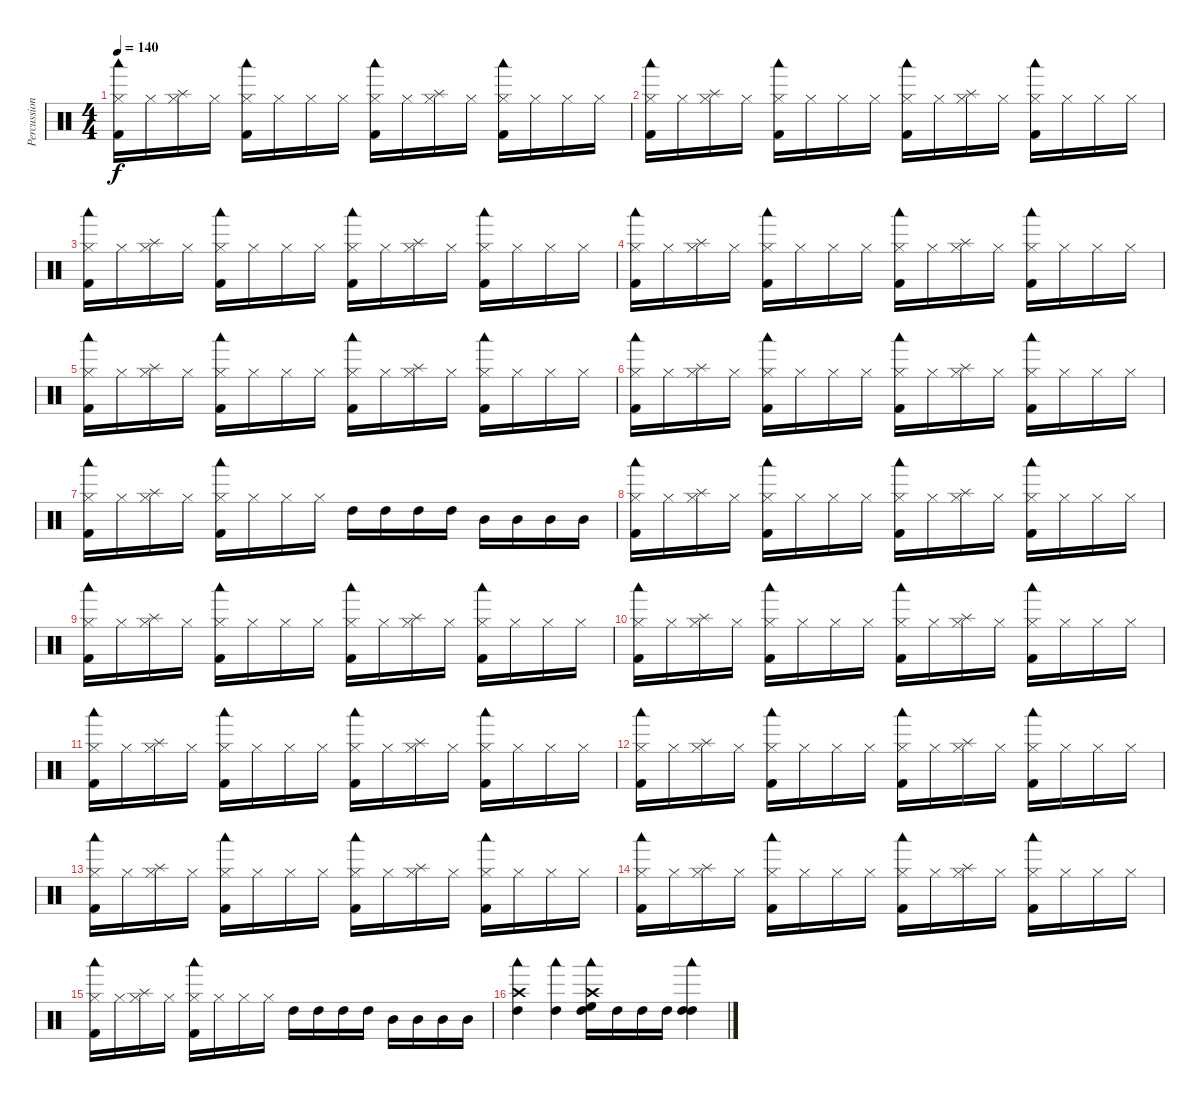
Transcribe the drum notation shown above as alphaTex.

\track ("Percussion" "Percussion") {instrument percussion}
\staff {score}
\articulation defaults
\ts (4 4)
\tempo 140
\clef neutral
\ks c
("Woodblock low (hit)" "Hi-Hat (closed)" "Kick (hit) 2").16{dy f} "Hi-Hat (closed)".16 ("Splash (hit)" "Hi-Hat (closed)").16 "Hi-Hat (closed)".16 ("Woodblock low (hit)" "Hi-Hat (closed)" "Kick (hit) 2").16 "Hi-Hat (closed)".16 "Hi-Hat (closed)".16 "Hi-Hat (closed)".16 ("Woodblock low (hit)" "Hi-Hat (closed)" "Kick (hit) 2").16 "Hi-Hat (closed)".16 ("Splash (hit)" "Hi-Hat (closed)").16 "Hi-Hat (closed)".16 ("Woodblock low (hit)" "Hi-Hat (closed)" "Kick (hit) 2").16 "Hi-Hat (closed)".16 "Hi-Hat (closed)".16 "Hi-Hat (closed)".16 |
("Woodblock low (hit)" "Hi-Hat (closed)" "Kick (hit) 2").16 "Hi-Hat (closed)".16 ("Splash (hit)" "Hi-Hat (closed)").16 "Hi-Hat (closed)".16 ("Woodblock low (hit)" "Hi-Hat (closed)" "Kick (hit) 2").16 "Hi-Hat (closed)".16 "Hi-Hat (closed)".16 "Hi-Hat (closed)".16 ("Woodblock low (hit)" "Hi-Hat (closed)" "Kick (hit) 2").16 "Hi-Hat (closed)".16 ("Splash (hit)" "Hi-Hat (closed)").16 "Hi-Hat (closed)".16 ("Woodblock low (hit)" "Hi-Hat (closed)" "Kick (hit) 2").16 "Hi-Hat (closed)".16 "Hi-Hat (closed)".16 "Hi-Hat (closed)".16 |
("Woodblock low (hit)" "Hi-Hat (closed)" "Kick (hit) 2").16 "Hi-Hat (closed)".16 ("Splash (hit)" "Hi-Hat (closed)").16 "Hi-Hat (closed)".16 ("Woodblock low (hit)" "Hi-Hat (closed)" "Kick (hit) 2").16 "Hi-Hat (closed)".16 "Hi-Hat (closed)".16 "Hi-Hat (closed)".16 ("Woodblock low (hit)" "Hi-Hat (closed)" "Kick (hit) 2").16 "Hi-Hat (closed)".16 ("Splash (hit)" "Hi-Hat (closed)").16 "Hi-Hat (closed)".16 ("Woodblock low (hit)" "Hi-Hat (closed)" "Kick (hit) 2").16 "Hi-Hat (closed)".16 "Hi-Hat (closed)".16 "Hi-Hat (closed)".16 |
("Woodblock low (hit)" "Hi-Hat (closed)" "Kick (hit) 2").16 "Hi-Hat (closed)".16 ("Splash (hit)" "Hi-Hat (closed)").16 "Hi-Hat (closed)".16 ("Woodblock low (hit)" "Hi-Hat (closed)" "Kick (hit) 2").16 "Hi-Hat (closed)".16 "Hi-Hat (closed)".16 "Hi-Hat (closed)".16 ("Woodblock low (hit)" "Hi-Hat (closed)" "Kick (hit) 2").16 "Hi-Hat (closed)".16 ("Splash (hit)" "Hi-Hat (closed)").16 "Hi-Hat (closed)".16 ("Woodblock low (hit)" "Hi-Hat (closed)" "Kick (hit) 2").16 "Hi-Hat (closed)".16 "Hi-Hat (closed)".16 "Hi-Hat (closed)".16 |
("Woodblock low (hit)" "Hi-Hat (closed)" "Kick (hit) 2").16 "Hi-Hat (closed)".16 ("Splash (hit)" "Hi-Hat (closed)").16 "Hi-Hat (closed)".16 ("Woodblock low (hit)" "Hi-Hat (closed)" "Kick (hit) 2").16 "Hi-Hat (closed)".16 "Hi-Hat (closed)".16 "Hi-Hat (closed)".16 ("Woodblock low (hit)" "Hi-Hat (closed)" "Kick (hit) 2").16 "Hi-Hat (closed)".16 ("Splash (hit)" "Hi-Hat (closed)").16 "Hi-Hat (closed)".16 ("Woodblock low (hit)" "Hi-Hat (closed)" "Kick (hit) 2").16 "Hi-Hat (closed)".16 "Hi-Hat (closed)".16 "Hi-Hat (closed)".16 |
("Woodblock low (hit)" "Hi-Hat (closed)" "Kick (hit) 2").16 "Hi-Hat (closed)".16 ("Splash (hit)" "Hi-Hat (closed)").16 "Hi-Hat (closed)".16 ("Woodblock low (hit)" "Hi-Hat (closed)" "Kick (hit) 2").16 "Hi-Hat (closed)".16 "Hi-Hat (closed)".16 "Hi-Hat (closed)".16 ("Woodblock low (hit)" "Hi-Hat (closed)" "Kick (hit) 2").16 "Hi-Hat (closed)".16 ("Splash (hit)" "Hi-Hat (closed)").16 "Hi-Hat (closed)".16 ("Woodblock low (hit)" "Hi-Hat (closed)" "Kick (hit) 2").16 "Hi-Hat (closed)".16 "Hi-Hat (closed)".16 "Hi-Hat (closed)".16 |
("Woodblock low (hit)" "Hi-Hat (closed)" "Kick (hit) 2").16 "Hi-Hat (closed)".16 ("Splash (hit)" "Hi-Hat (closed)").16 "Hi-Hat (closed)".16 ("Woodblock low (hit)" "Hi-Hat (closed)" "Kick (hit) 2").16 "Hi-Hat (closed)".16 "Hi-Hat (closed)".16 "Hi-Hat (closed)".16 "High Tom (hit)".16 "High Tom (hit)".16 "High Tom (hit)".16 "High Tom (hit)".16 "Mid Tom (hit)".16 "Mid Tom (hit)".16 "Mid Tom (hit)".16 "Mid Tom (hit)".16 |
("Woodblock low (hit)" "Hi-Hat (closed)" "Kick (hit) 2").16 "Hi-Hat (closed)".16 ("Splash (hit)" "Hi-Hat (closed)").16 "Hi-Hat (closed)".16 ("Woodblock low (hit)" "Hi-Hat (closed)" "Kick (hit) 2").16 "Hi-Hat (closed)".16 "Hi-Hat (closed)".16 "Hi-Hat (closed)".16 ("Woodblock low (hit)" "Hi-Hat (closed)" "Kick (hit) 2").16 "Hi-Hat (closed)".16 ("Splash (hit)" "Hi-Hat (closed)").16 "Hi-Hat (closed)".16 ("Woodblock low (hit)" "Hi-Hat (closed)" "Kick (hit) 2").16 "Hi-Hat (closed)".16 "Hi-Hat (closed)".16 "Hi-Hat (closed)".16 |
("Woodblock low (hit)" "Hi-Hat (closed)" "Kick (hit) 2").16 "Hi-Hat (closed)".16 ("Splash (hit)" "Hi-Hat (closed)").16 "Hi-Hat (closed)".16 ("Woodblock low (hit)" "Hi-Hat (closed)" "Kick (hit) 2").16 "Hi-Hat (closed)".16 "Hi-Hat (closed)".16 "Hi-Hat (closed)".16 ("Woodblock low (hit)" "Hi-Hat (closed)" "Kick (hit) 2").16 "Hi-Hat (closed)".16 ("Splash (hit)" "Hi-Hat (closed)").16 "Hi-Hat (closed)".16 ("Woodblock low (hit)" "Hi-Hat (closed)" "Kick (hit) 2").16 "Hi-Hat (closed)".16 "Hi-Hat (closed)".16 "Hi-Hat (closed)".16 |
("Woodblock low (hit)" "Hi-Hat (closed)" "Kick (hit) 2").16 "Hi-Hat (closed)".16 ("Splash (hit)" "Hi-Hat (closed)").16 "Hi-Hat (closed)".16 ("Woodblock low (hit)" "Hi-Hat (closed)" "Kick (hit) 2").16 "Hi-Hat (closed)".16 "Hi-Hat (closed)".16 "Hi-Hat (closed)".16 ("Woodblock low (hit)" "Hi-Hat (closed)" "Kick (hit) 2").16 "Hi-Hat (closed)".16 ("Splash (hit)" "Hi-Hat (closed)").16 "Hi-Hat (closed)".16 ("Woodblock low (hit)" "Hi-Hat (closed)" "Kick (hit) 2").16 "Hi-Hat (closed)".16 "Hi-Hat (closed)".16 "Hi-Hat (closed)".16 |
("Woodblock low (hit)" "Hi-Hat (closed)" "Kick (hit) 2").16 "Hi-Hat (closed)".16 ("Splash (hit)" "Hi-Hat (closed)").16 "Hi-Hat (closed)".16 ("Woodblock low (hit)" "Hi-Hat (closed)" "Kick (hit) 2").16 "Hi-Hat (closed)".16 "Hi-Hat (closed)".16 "Hi-Hat (closed)".16 ("Woodblock low (hit)" "Hi-Hat (closed)" "Kick (hit) 2").16 "Hi-Hat (closed)".16 ("Splash (hit)" "Hi-Hat (closed)").16 "Hi-Hat (closed)".16 ("Woodblock low (hit)" "Hi-Hat (closed)" "Kick (hit) 2").16 "Hi-Hat (closed)".16 "Hi-Hat (closed)".16 "Hi-Hat (closed)".16 |
("Woodblock low (hit)" "Hi-Hat (closed)" "Kick (hit) 2").16 "Hi-Hat (closed)".16 ("Splash (hit)" "Hi-Hat (closed)").16 "Hi-Hat (closed)".16 ("Woodblock low (hit)" "Hi-Hat (closed)" "Kick (hit) 2").16 "Hi-Hat (closed)".16 "Hi-Hat (closed)".16 "Hi-Hat (closed)".16 ("Woodblock low (hit)" "Hi-Hat (closed)" "Kick (hit) 2").16 "Hi-Hat (closed)".16 ("Splash (hit)" "Hi-Hat (closed)").16 "Hi-Hat (closed)".16 ("Woodblock low (hit)" "Hi-Hat (closed)" "Kick (hit) 2").16 "Hi-Hat (closed)".16 "Hi-Hat (closed)".16 "Hi-Hat (closed)".16 |
("Woodblock low (hit)" "Hi-Hat (closed)" "Kick (hit) 2").16 "Hi-Hat (closed)".16 ("Splash (hit)" "Hi-Hat (closed)").16 "Hi-Hat (closed)".16 ("Woodblock low (hit)" "Hi-Hat (closed)" "Kick (hit) 2").16 "Hi-Hat (closed)".16 "Hi-Hat (closed)".16 "Hi-Hat (closed)".16 ("Woodblock low (hit)" "Hi-Hat (closed)" "Kick (hit) 2").16 "Hi-Hat (closed)".16 ("Splash (hit)" "Hi-Hat (closed)").16 "Hi-Hat (closed)".16 ("Woodblock low (hit)" "Hi-Hat (closed)" "Kick (hit) 2").16 "Hi-Hat (closed)".16 "Hi-Hat (closed)".16 "Hi-Hat (closed)".16 |
("Woodblock low (hit)" "Hi-Hat (closed)" "Kick (hit) 2").16 "Hi-Hat (closed)".16 ("Splash (hit)" "Hi-Hat (closed)").16 "Hi-Hat (closed)".16 ("Woodblock low (hit)" "Hi-Hat (closed)" "Kick (hit) 2").16 "Hi-Hat (closed)".16 "Hi-Hat (closed)".16 "Hi-Hat (closed)".16 ("Woodblock low (hit)" "Hi-Hat (closed)" "Kick (hit) 2").16 "Hi-Hat (closed)".16 ("Splash (hit)" "Hi-Hat (closed)").16 "Hi-Hat (closed)".16 ("Woodblock low (hit)" "Hi-Hat (closed)" "Kick (hit) 2").16 "Hi-Hat (closed)".16 "Hi-Hat (closed)".16 "Hi-Hat (closed)".16 |
("Woodblock low (hit)" "Hi-Hat (closed)" "Kick (hit) 2").16 "Hi-Hat (closed)".16 ("Splash (hit)" "Hi-Hat (closed)").16 "Hi-Hat (closed)".16 ("Woodblock low (hit)" "Hi-Hat (closed)" "Kick (hit) 2").16 "Hi-Hat (closed)".16 "Hi-Hat (closed)".16 "Hi-Hat (closed)".16 "High Tom (hit)".16 "High Tom (hit)".16 "High Tom (hit)".16 "High Tom (hit)".16 "Mid Tom (hit)".16 "Mid Tom (hit)".16 "Mid Tom (hit)".16 "Mid Tom (hit)".16 |
("Crash high (hit)" "Woodblock low (hit)" "High Tom (hit)").4 ("Woodblock low (hit)" "High Tom (hit)").4 ("Crash high (hit)" "Woodblock low (hit)" "High Floor Tom (hit)" "High Tom (hit)").16 "High Tom (hit)".16 "High Tom (hit)".16 "High Tom (hit)".16 ("Woodblock low (hit)" "High Tom (hit)" "High Tom (hit)").4
